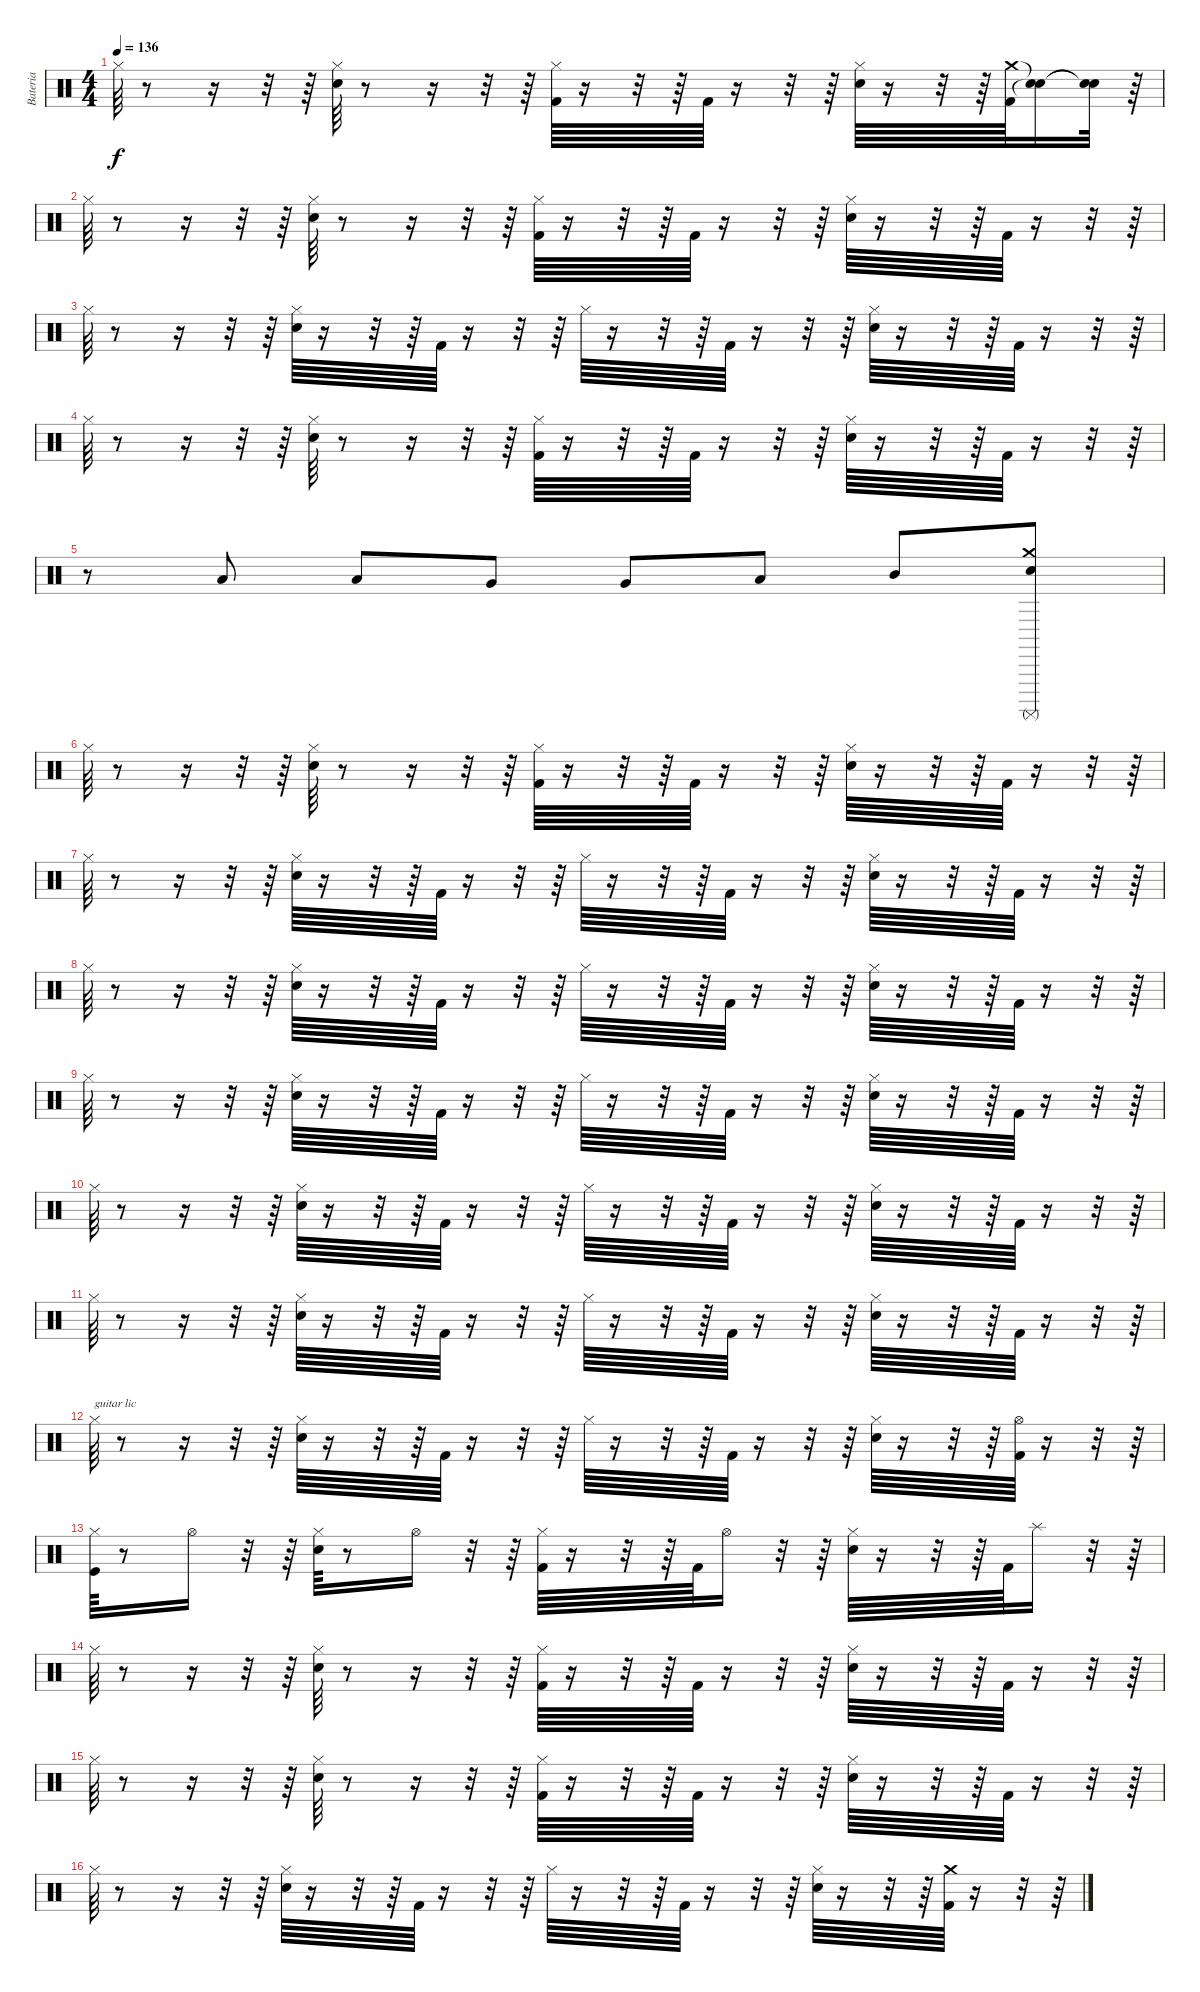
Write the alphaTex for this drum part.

\track ("Bateria" "Bateria") {instrument percussion}
\staff {score}
\articulation defaults
\ts (4 4)
\tempo 136
\clef neutral
\ks c "Hi-Hat (closed)".64{dy f}
r.8 r.16 r.32 r.64 ("Snare (hit) 2" "Hi-Hat (closed)").64 r.8 r.16 r.32 r.64 ("Kick (hit) 2" "Hi-Hat (closed)").64 r.16 r.32 r.64 "Kick (hit) 2".64 r.16 r.32 r.64 ("Snare (hit) 2" "Hi-Hat (closed)").64 r.16 r.32 r.64 ("Kick (hit) 2" "Crash medium (hit)").64 ("Snare (hit)"{t} "Snare (hit)"{t}).16 ("Snare (hit)"{t} "Snare (hit)"{t}).32 r.64 |
"Hi-Hat (closed)".64 r.8 r.16 r.32 r.64 ("Snare (hit) 2" "Hi-Hat (closed)").64 r.8 r.16 r.32 r.64 ("Kick (hit) 2" "Hi-Hat (closed)").64 r.16 r.32 r.64 "Kick (hit) 2".64 r.16 r.32 r.64 ("Snare (hit) 2" "Hi-Hat (closed)").64 r.16 r.32 r.64 "Kick (hit) 2".64 r.16 r.32 r.64 |
"Hi-Hat (closed)".64 r.8 r.16 r.32 r.64 ("Snare (hit) 2" "Hi-Hat (closed)").64 r.16 r.32 r.64 "Kick (hit) 2".64 r.16 r.32 r.64 "Hi-Hat (closed)".64 r.16 r.32 r.64 "Kick (hit) 2".64 r.16 r.32 r.64 ("Snare (hit) 2" "Hi-Hat (closed)").64 r.16 r.32 r.64 "Kick (hit) 2".64 r.16 r.32 r.64 |
"Hi-Hat (closed)".64 r.8 r.16 r.32 r.64 ("Snare (hit) 2" "Hi-Hat (closed)").64 r.8 r.16 r.32 r.64 ("Kick (hit) 2" "Hi-Hat (closed)").64 r.16 r.32 r.64 "Kick (hit) 2".64 r.16 r.32 r.64 ("Snare (hit) 2" "Hi-Hat (closed)").64 r.16 r.32 r.64 "Kick (hit) 2".64 r.16 r.32 r.64 |
r.8 "Low Floor Tom (hit)".8 "Low Floor Tom (hit)".8 "Very Low Tom (hit)".8 "Very Low Tom (hit)".8 "Low Tom (hit)".8 "Mid Tom (hit)".8 ("Snare (hit) 2" "Crash medium (hit)" "Surdo (mute)").8 |
"Hi-Hat (closed)".64 r.8 r.16 r.32 r.64 ("Snare (hit) 2" "Hi-Hat (closed)").64 r.8 r.16 r.32 r.64 ("Kick (hit) 2" "Hi-Hat (closed)").64 r.16 r.32 r.64 "Kick (hit) 2".64 r.16 r.32 r.64 ("Snare (hit) 2" "Hi-Hat (closed)").64 r.16 r.32 r.64 "Kick (hit) 2".64 r.16 r.32 r.64 |
"Hi-Hat (closed)".64 r.8 r.16 r.32 r.64 ("Snare (hit) 2" "Hi-Hat (closed)").64 r.16 r.32 r.64 "Kick (hit) 2".64 r.16 r.32 r.64 "Hi-Hat (closed)".64 r.16 r.32 r.64 "Kick (hit) 2".64 r.16 r.32 r.64 ("Snare (hit) 2" "Hi-Hat (closed)").64 r.16 r.32 r.64 "Kick (hit) 2".64 r.16 r.32 r.64 |
"Hi-Hat (closed)".64 r.8 r.16 r.32 r.64 ("Snare (hit) 2" "Hi-Hat (closed)").64 r.16 r.32 r.64 "Kick (hit) 2".64 r.16 r.32 r.64 "Hi-Hat (closed)".64 r.16 r.32 r.64 "Kick (hit) 2".64 r.16 r.32 r.64 ("Snare (hit) 2" "Hi-Hat (closed)").64 r.16 r.32 r.64 "Kick (hit) 2".64 r.16 r.32 r.64 |
"Hi-Hat (closed)".64 r.8 r.16 r.32 r.64 ("Snare (hit) 2" "Hi-Hat (closed)").64 r.16 r.32 r.64 "Kick (hit) 2".64 r.16 r.32 r.64 "Hi-Hat (closed)".64 r.16 r.32 r.64 "Kick (hit) 2".64 r.16 r.32 r.64 ("Snare (hit) 2" "Hi-Hat (closed)").64 r.16 r.32 r.64 "Kick (hit) 2".64 r.16 r.32 r.64 |
"Hi-Hat (closed)".64 r.8 r.16 r.32 r.64 ("Snare (hit) 2" "Hi-Hat (closed)").64 r.16 r.32 r.64 "Kick (hit) 2".64 r.16 r.32 r.64 "Hi-Hat (closed)".64 r.16 r.32 r.64 "Kick (hit) 2".64 r.16 r.32 r.64 ("Snare (hit) 2" "Hi-Hat (closed)").64 r.16 r.32 r.64 "Kick (hit) 2".64 r.16 r.32 r.64 |
"Hi-Hat (closed)".64 r.8 r.16 r.32 r.64 ("Snare (hit) 2" "Hi-Hat (closed)").64 r.16 r.32 r.64 "Kick (hit) 2".64 r.16 r.32 r.64 "Hi-Hat (closed)".64 r.16 r.32 r.64 "Kick (hit) 2".64 r.16 r.32 r.64 ("Snare (hit) 2" "Hi-Hat (closed)").64 r.16 r.32 r.64 "Kick (hit) 2".64 r.16 r.32 r.64 |
"Hi-Hat (closed)".64{txt "guitar lic"} r.8 r.16 r.32 r.64 ("Snare (hit) 2" "Hi-Hat (closed)").64 r.16 r.32 r.64 "Kick (hit) 2".64 r.16 r.32 r.64 "Hi-Hat (closed)".64 r.16 r.32 r.64 "Kick (hit) 2".64 r.16 r.32 r.64 ("Snare (hit) 2" "Hi-Hat (closed)").64 r.16 r.32 r.64 ("Kick (hit) 2" "Hi-Hat (open)").64 r.16 r.32 r.64 |
("Kick (hit)" "Hi-Hat (closed)").64 r.8 "Hi-Hat (open)".16 r.32 r.64 ("Snare (hit) 2" "Hi-Hat (closed)").64 r.8 "Hi-Hat (open)".16 r.32 r.64 ("Kick (hit) 2" "Hi-Hat (closed)").64 r.16 r.32 r.64 "Kick (hit) 2".64 "Hi-Hat (open)".16 r.32 r.64 ("Snare (hit) 2" "Hi-Hat (closed)").64 r.16 r.32 r.64 "Kick (hit) 2".64 "Splash (hit)".16 r.32 r.64 |
"Hi-Hat (closed)".64 r.8 r.16 r.32 r.64 ("Snare (hit) 2" "Hi-Hat (closed)").64 r.8 r.16 r.32 r.64 ("Kick (hit) 2" "Hi-Hat (closed)").64 r.16 r.32 r.64 "Kick (hit) 2".64 r.16 r.32 r.64 ("Snare (hit) 2" "Hi-Hat (closed)").64 r.16 r.32 r.64 "Kick (hit) 2".64 r.16 r.32 r.64 |
"Hi-Hat (closed)".64 r.8 r.16 r.32 r.64 ("Snare (hit) 2" "Hi-Hat (closed)").64 r.8 r.16 r.32 r.64 ("Kick (hit) 2" "Hi-Hat (closed)").64 r.16 r.32 r.64 "Kick (hit) 2".64 r.16 r.32 r.64 ("Snare (hit) 2" "Hi-Hat (closed)").64 r.16 r.32 r.64 "Kick (hit) 2".64 r.16 r.32 r.64 |
"Hi-Hat (closed)".64 r.8 r.16 r.32 r.64 ("Snare (hit) 2" "Hi-Hat (closed)").64 r.16 r.32 r.64 "Kick (hit) 2".64 r.16 r.32 r.64 "Hi-Hat (closed)".64 r.16 r.32 r.64 "Kick (hit) 2".64 r.16 r.32 r.64 ("Snare (hit) 2" "Hi-Hat (closed)").64 r.16 r.32 r.64 ("Kick (hit) 2" "Crash medium (hit)").64 r.16 r.32 r.64
